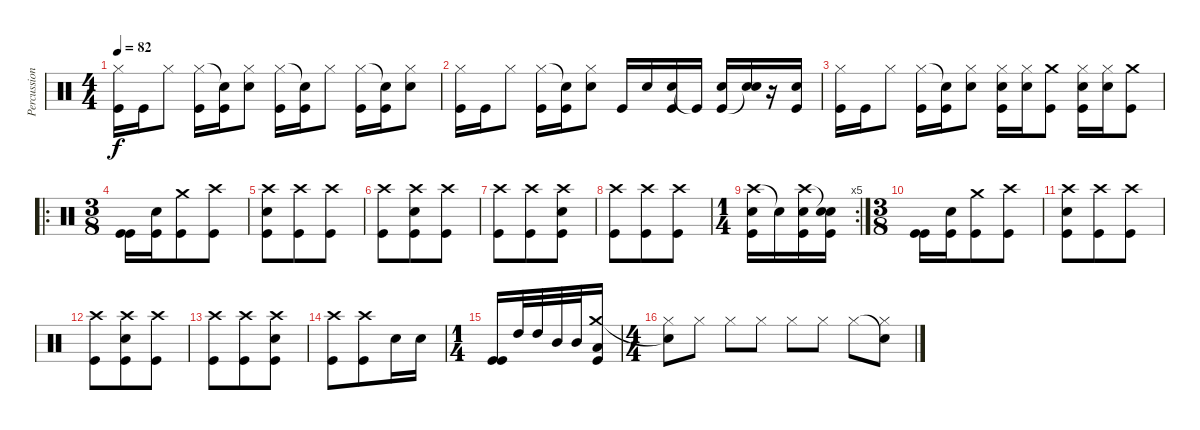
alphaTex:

\track ("Percussion" "Percussion") {instrument percussion}
\staff {score}
\articulation defaults
\ts (4 4)
\tempo 82
\clef neutral
\ks c
("Hi-Hat (closed)" "Kick (hit)").16{dy f} "Kick (hit)".16 "Hi-Hat (closed)".8 ("Hi-Hat (closed)" "Kick (hit)").16 ("Snare (hit)"{t} "Kick (hit)").16 ("Hi-Hat (closed)" "Snare (hit) 2").8 ("Hi-Hat (closed)" "Kick (hit)").16 ("Snare (hit)"{t} "Kick (hit)").16 "Hi-Hat (closed)".8 ("Hi-Hat (closed)" "Kick (hit)").16 ("Snare (hit)"{t} "Kick (hit)").16 ("Hi-Hat (closed)" "Snare (hit) 2").8 |
("Hi-Hat (closed)" "Kick (hit)").16 "Kick (hit)".16 "Hi-Hat (closed)".8 ("Hi-Hat (closed)" "Kick (hit)").16 ("Snare (hit)"{t} "Kick (hit)").16 ("Hi-Hat (closed)" "Snare (hit) 2").8 "Kick (hit)".16 "Snare (hit) 2".16 ("Snare (hit) 2" "Kick (hit)").16 "Kick (hit)"{t}.16 ("Snare (hit) 2" "Kick (hit)").16 ("Snare (hit) 2" "Snare (hit)"{t}).16 r.16 ("Snare (hit) 2" "Kick (hit)").16 |
("Hi-Hat (closed)" "Kick (hit)").16 "Kick (hit)".16 "Hi-Hat (closed)".8 ("Hi-Hat (closed)" "Kick (hit)").16 ("Snare (hit)"{t} "Kick (hit)").16 ("Hi-Hat (closed)" "Snare (hit) 2").8 ("Hi-Hat (closed)" "Snare (hit) 2" "Kick (hit)").16 ("Hi-Hat (closed)" "Snare (hit) 2").16 ("Crash medium (hit)" "Kick (hit)").8 ("Hi-Hat (closed)" "Snare (hit) 2" "Kick (hit)").16 ("Hi-Hat (closed)" "Snare (hit) 2").16 ("Crash medium (hit)" "Kick (hit)").8 |
\ro
\ts (3 8)
("Kick (hit)" "Kick (hit)").16 ("Snare (hit) 2" "Kick (hit)").16 ("Crash medium (hit)" "Kick (hit)").8 ("Crash high (hit)" "Kick (hit)").8 |
("Crash high (hit)" "Snare (hit) 2" "Kick (hit)").8 ("Crash high (hit)" "Kick (hit)").8 ("Crash high (hit)" "Kick (hit)").8 |
("Crash high (hit)" "Kick (hit)").8 ("Crash high (hit)" "Snare (hit) 2" "Kick (hit)").8 ("Crash high (hit)" "Kick (hit)").8 |
("Crash high (hit)" "Kick (hit)").8 ("Crash high (hit)" "Kick (hit)").8 ("Crash high (hit)" "Snare (hit) 2" "Kick (hit)").8 |
("Crash high (hit)" "Kick (hit)").8 ("Crash high (hit)" "Kick (hit)").8 ("Crash high (hit)" "Kick (hit)").8 |
\rc 5
\ts (1 4)
("Crash high (hit)" "Snare (hit) 2" "Kick (hit)").16 "Snare (hit)"{t}.16 ("Crash high (hit)" "Snare (hit) 2" "Kick (hit)").16 ("Snare (hit)"{t} "Snare (hit) 2" "Kick (hit)").16 |
\ts (3 8)
("Kick (hit)" "Kick (hit)").16 ("Snare (hit) 2" "Kick (hit)").16 ("Crash medium (hit)" "Kick (hit)").8 ("Crash high (hit)" "Kick (hit)").8 |
("Crash high (hit)" "Snare (hit) 2" "Kick (hit)").8 ("Crash high (hit)" "Kick (hit)").8 ("Crash high (hit)" "Kick (hit)").8 |
("Crash high (hit)" "Kick (hit)").8 ("Crash high (hit)" "Snare (hit) 2" "Kick (hit)").8 ("Crash high (hit)" "Kick (hit)").8 |
("Crash high (hit)" "Kick (hit)").8 ("Crash high (hit)" "Kick (hit)").8 ("Crash high (hit)" "Snare (hit) 2" "Kick (hit)").8 |
("Crash high (hit)" "Kick (hit)").8 ("Crash high (hit)" "Kick (hit)").8 "Snare (hit) 2".16 "Snare (hit) 2".16 |
\ts (1 4)
("Kick (hit)" "Kick (hit)").16 "High Tom (hit)".32 "High Tom (hit)".32 "Mid Tom (hit)".32 "Mid Tom (hit)".32 ("Crash medium (hit)" "Low Tom (hit)" "Kick (hit)").16 |
\ts (4 4)
("Snare (hit)"{t} "Hi-Hat (closed)").8 "Hi-Hat (closed)".8 "Hi-Hat (closed)".8 "Hi-Hat (closed)".8 "Hi-Hat (closed)".8 "Hi-Hat (closed)".8 "Hi-Hat (closed)".8 ("Snare (hit)"{t} "Hi-Hat (closed)").8
